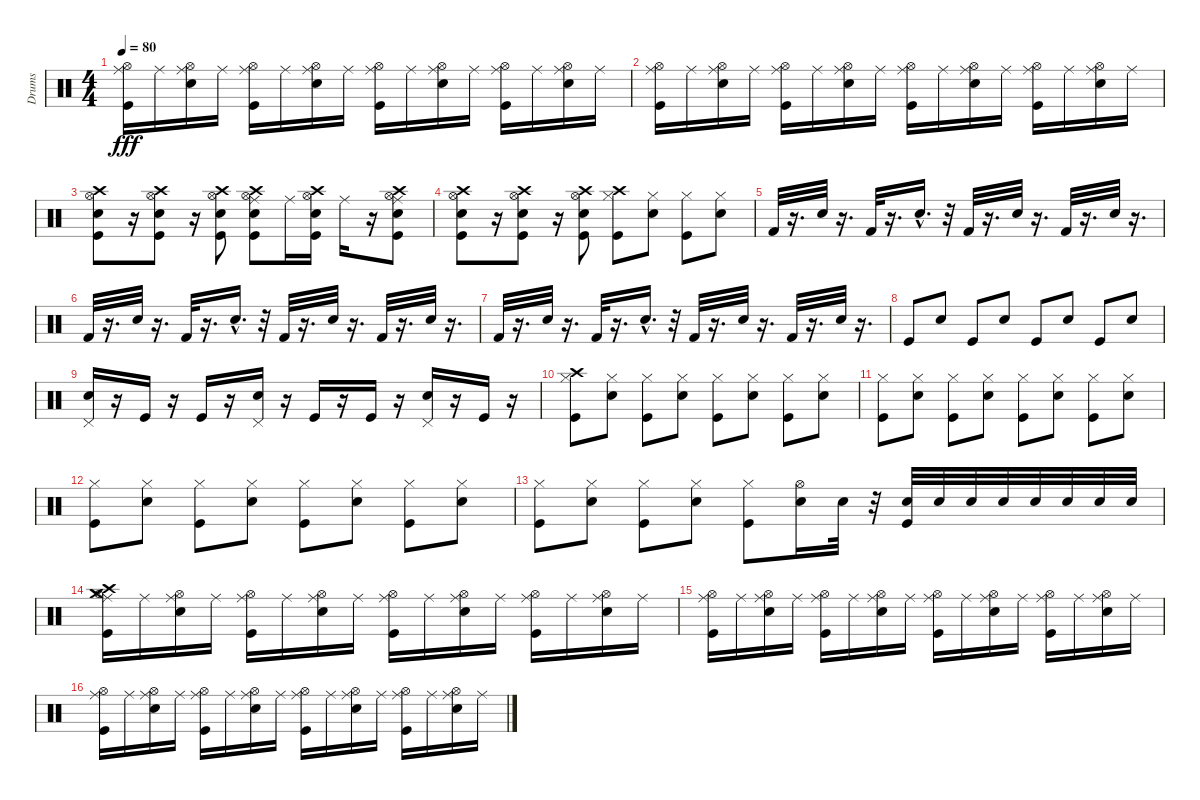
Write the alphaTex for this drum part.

\track ("Drums" "Drums") {instrument percussion}
\staff {score}
\articulation defaults
\ts (4 4)
\tempo 80
\clef neutral
\ks c
("Kick (hit)" "Ride (middle)" "Hi-Hat (open)").16{dy fff} "Ride (middle)".16 ("Snare (hit) 2" "Hi-Hat (open)" "Ride (middle)").16 "Ride (middle)".16 ("Kick (hit)" "Ride (middle)" "Hi-Hat (open)").16 "Ride (middle)".16 ("Ride (middle)" "Hi-Hat (open)" "Snare (hit) 2").16 "Ride (middle)".16 ("Hi-Hat (open)" "Ride (middle)" "Kick (hit)").16 "Ride (middle)".16 ("Hi-Hat (open)" "Ride (middle)" "Snare (hit) 2").16 "Ride (middle)".16 ("Ride (middle)" "Kick (hit)" "Hi-Hat (open)").16 "Ride (middle)".16 ("Snare (hit) 2" "Hi-Hat (open)" "Ride (middle)").16 "Ride (middle)".16 |
("Hi-Hat (open)" "Kick (hit)" "Ride (middle)").16 "Ride (middle)".16 ("Snare (hit) 2" "Ride (middle)" "Hi-Hat (open)").16 "Ride (middle)".16 ("Kick (hit)" "Ride (middle)" "Hi-Hat (open)").16 "Ride (middle)".16 ("Snare (hit) 2" "Hi-Hat (open)" "Ride (middle)").16 "Ride (middle)".16 ("Hi-Hat (open)" "Ride (middle)" "Kick (hit)").16 "Ride (middle)".16 ("Ride (middle)" "Hi-Hat (open)" "Snare (hit) 2").16 "Ride (middle)".16 ("Ride (middle)" "Hi-Hat (open)" "Kick (hit)").16 "Ride (middle)".16 ("Hi-Hat (open)" "Ride (middle)" "Snare (hit) 2").16 "Ride (middle)".16 |
("Hi-Hat (open)" "Kick (hit)" "Crash high (hit)" "Snare (hit) 2").8 r.16 ("Hi-Hat (open)" "Snare (hit) 2" "Crash high (hit)" "Kick (hit)").8 r.16 ("Snare (hit) 2" "Hi-Hat (open)" "Kick (hit)" "Crash high (hit)").8 ("Hi-Hat (open)" "Ride (middle)" "Kick (hit)" "Snare (hit) 2" "Crash high (hit)").8 "Ride (middle)".16 ("Hi-Hat (open)" "Kick (hit)" "Snare (hit) 2" "Crash high (hit)").16 "Ride (middle)".16 r.16 ("Snare (hit) 2" "Hi-Hat (open)" "Ride (middle)" "Crash high (hit)" "Kick (hit)").8 |
("Snare (hit) 2" "Kick (hit)" "Hi-Hat (open)" "Crash high (hit)").8 r.16 ("Crash high (hit)" "Hi-Hat (open)" "Snare (hit) 2" "Kick (hit)").8 r.16 ("Crash high (hit)" "Hi-Hat (open)" "Kick (hit)" "Snare (hit) 2").8 ("Hi-Hat (closed)" "Crash high (hit)" "Kick (hit)").8 ("Snare (hit) 2" "Hi-Hat (closed)").8 ("Hi-Hat (closed)" "Kick (hit)").8 ("Hi-Hat (closed)" "Snare (hit) 2").8 |
"Kick (hit) 2".32 r.16{d} "Snare (hit) 2".32 r.16{d} "Kick (hit) 2".32 r.16{d} "Snare (hit) 2"{hac}.16{d} r.32 "Kick (hit) 2".32 r.16{d} "Snare (hit) 2".32 r.16{d} "Kick (hit) 2".32 r.16{d} "Snare (hit) 2".32 r.16{d} |
"Kick (hit) 2".32 r.16{d} "Snare (hit) 2".32 r.16{d} "Kick (hit) 2".32 r.16{d} "Snare (hit) 2"{hac}.16{d} r.32 "Kick (hit) 2".32 r.16{d} "Snare (hit) 2".32 r.16{d} "Kick (hit) 2".32 r.16{d} "Snare (hit) 2".32 r.16{d} |
"Kick (hit) 2".32 r.16{d} "Snare (hit) 2".32 r.16{d} "Kick (hit) 2".32 r.16{d} "Snare (hit) 2"{hac}.16{d} r.32 "Kick (hit) 2".32 r.16{d} "Snare (hit) 2".32 r.16{d} "Kick (hit) 2".32 r.16{d} "Snare (hit) 2".32 r.16{d} |
"Kick (hit)".8 "Snare (hit) 2".8 "Kick (hit)".8 "Snare (hit) 2".8 "Kick (hit)".8 "Snare (hit) 2".8 "Kick (hit)".8 "Snare (hit) 2".8 |
("Pedal Hi-Hat (hit)" "Snare (hit) 2").16 r.16 "Kick (hit)".16 r.16 "Kick (hit)".16 r.16 ("Snare (hit) 2" "Pedal Hi-Hat (hit)").16 r.16 "Kick (hit)".16 r.16 "Kick (hit)".16 r.16 ("Pedal Hi-Hat (hit)" "Snare (hit) 2").16 r.16 "Kick (hit)".16 r.16 |
("Crash high (hit)" "Hi-Hat (closed)" "Kick (hit)").8 ("Snare (hit) 2" "Hi-Hat (closed)").8 ("Hi-Hat (closed)" "Kick (hit)").8 ("Hi-Hat (closed)" "Snare (hit) 2").8 ("Kick (hit)" "Hi-Hat (closed)").8 ("Hi-Hat (closed)" "Snare (hit) 2").8 ("Hi-Hat (closed)" "Kick (hit)").8 ("Snare (hit) 2" "Hi-Hat (closed)").8 |
("Hi-Hat (closed)" "Kick (hit)").8 ("Snare (hit) 2" "Hi-Hat (closed)").8 ("Kick (hit)" "Hi-Hat (closed)").8 ("Hi-Hat (closed)" "Snare (hit) 2").8 ("Kick (hit)" "Hi-Hat (closed)").8 ("Hi-Hat (closed)" "Snare (hit) 2").8 ("Hi-Hat (closed)" "Kick (hit)").8 ("Hi-Hat (closed)" "Snare (hit) 2").8 |
("Hi-Hat (closed)" "Kick (hit)").8 ("Hi-Hat (closed)" "Snare (hit) 2").8 ("Kick (hit)" "Hi-Hat (closed)").8 ("Hi-Hat (closed)" "Snare (hit) 2").8 ("Kick (hit)" "Hi-Hat (closed)").8 ("Snare (hit) 2" "Hi-Hat (closed)").8 ("Kick (hit)" "Hi-Hat (closed)").8 ("Hi-Hat (closed)" "Snare (hit) 2").8 |
("Hi-Hat (closed)" "Kick (hit)").8 ("Snare (hit) 2" "Hi-Hat (closed)").8 ("Hi-Hat (closed)" "Kick (hit)").8 ("Hi-Hat (closed)" "Snare (hit) 2").8 ("Hi-Hat (closed)" "Kick (hit)").8 ("Snare (hit) 2" "Hi-Hat (open)").16 "Snare (hit) 2".32 r.32 ("Snare (hit) 2" "Kick (hit)").32 "Snare (hit) 2".32 "Snare (hit) 2".32 "Snare (hit) 2".32 "Snare (hit) 2".32 "Snare (hit) 2".32 "Snare (hit) 2".32 "Snare (hit) 2".32 |
("Ride (middle)" "Crash medium (hit)" "Crash high (hit)" "Hi-Hat (open)" "Kick (hit)").16 "Ride (middle)".16 ("Ride (middle)" "Hi-Hat (open)" "Snare (hit) 2").16 "Ride (middle)".16 ("Hi-Hat (open)" "Ride (middle)" "Kick (hit)").16 "Ride (middle)".16 ("Hi-Hat (open)" "Snare (hit) 2" "Ride (middle)").16 "Ride (middle)".16 ("Ride (middle)" "Hi-Hat (open)" "Kick (hit)").16 "Ride (middle)".16 ("Snare (hit) 2" "Hi-Hat (open)" "Ride (middle)").16 "Ride (middle)".16 ("Kick (hit)" "Ride (middle)" "Hi-Hat (open)").16 "Ride (middle)".16 ("Ride (middle)" "Snare (hit) 2" "Hi-Hat (open)").16 "Ride (middle)".16 |
("Hi-Hat (open)" "Ride (middle)" "Kick (hit)").16 "Ride (middle)".16 ("Ride (middle)" "Hi-Hat (open)" "Snare (hit) 2").16 "Ride (middle)".16 ("Ride (middle)" "Kick (hit)" "Hi-Hat (open)").16 "Ride (middle)".16 ("Ride (middle)" "Hi-Hat (open)" "Snare (hit) 2").16 "Ride (middle)".16 ("Ride (middle)" "Hi-Hat (open)" "Kick (hit)").16 "Ride (middle)".16 ("Hi-Hat (open)" "Ride (middle)" "Snare (hit) 2").16 "Ride (middle)".16 ("Kick (hit)" "Ride (middle)" "Hi-Hat (open)").16 "Ride (middle)".16 ("Snare (hit) 2" "Hi-Hat (open)" "Ride (middle)").16 "Ride (middle)".16 |
("Hi-Hat (open)" "Kick (hit)" "Ride (middle)").16 "Ride (middle)".16 ("Ride (middle)" "Hi-Hat (open)" "Snare (hit) 2").16 "Ride (middle)".16 ("Hi-Hat (open)" "Ride (middle)" "Kick (hit)").16 "Ride (middle)".16 ("Hi-Hat (open)" "Snare (hit) 2" "Ride (middle)").16 "Ride (middle)".16 ("Ride (middle)" "Hi-Hat (open)" "Kick (hit)").16 "Ride (middle)".16 ("Snare (hit) 2" "Hi-Hat (open)" "Ride (middle)").16 "Ride (middle)".16 ("Kick (hit)" "Ride (middle)" "Hi-Hat (open)").16 "Ride (middle)".16 ("Ride (middle)" "Snare (hit) 2" "Hi-Hat (open)").16 "Ride (middle)".16
